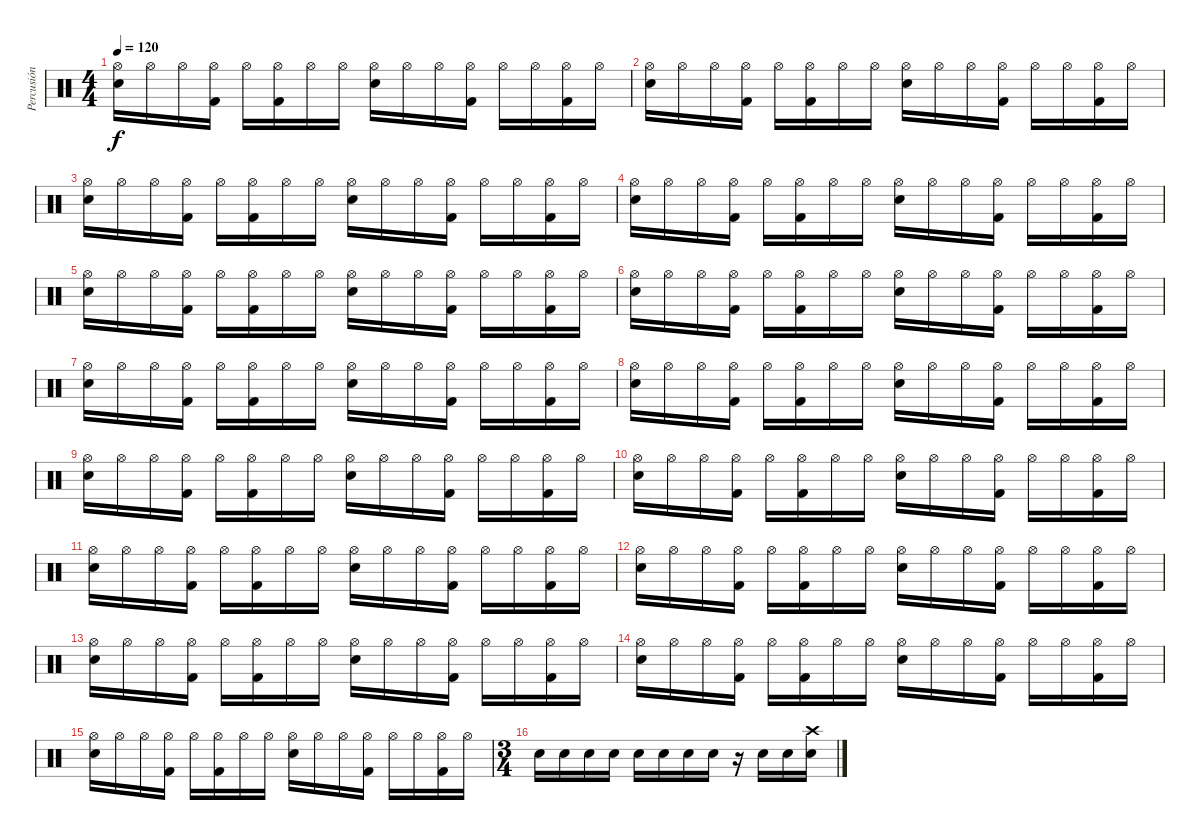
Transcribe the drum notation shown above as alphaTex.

\track ("Percusión" "Percusión") {instrument percussion}
\staff {score}
\articulation defaults
\ts (4 4)
\tempo 120
\clef neutral
\ks c
("Hi-Hat (open)" "Snare (hit) 2").16{dy f} "Hi-Hat (open)".16 "Hi-Hat (open)".16 ("Hi-Hat (open)" "Kick (hit) 2").16 "Hi-Hat (open)".16 ("Hi-Hat (open)" "Kick (hit) 2").16 "Hi-Hat (open)".16 "Hi-Hat (open)".16 ("Hi-Hat (open)" "Snare (hit) 2").16 "Hi-Hat (open)".16 "Hi-Hat (open)".16 ("Hi-Hat (open)" "Kick (hit) 2").16 "Hi-Hat (open)".16 "Hi-Hat (open)".16 ("Hi-Hat (open)" "Kick (hit) 2").16 "Hi-Hat (open)".16 |
("Hi-Hat (open)" "Snare (hit) 2").16 "Hi-Hat (open)".16 "Hi-Hat (open)".16 ("Hi-Hat (open)" "Kick (hit) 2").16 "Hi-Hat (open)".16 ("Hi-Hat (open)" "Kick (hit) 2").16 "Hi-Hat (open)".16 "Hi-Hat (open)".16 ("Hi-Hat (open)" "Snare (hit) 2").16 "Hi-Hat (open)".16 "Hi-Hat (open)".16 ("Hi-Hat (open)" "Kick (hit) 2").16 "Hi-Hat (open)".16 "Hi-Hat (open)".16 ("Hi-Hat (open)" "Kick (hit) 2").16 "Hi-Hat (open)".16 |
("Hi-Hat (open)" "Snare (hit) 2").16 "Hi-Hat (open)".16 "Hi-Hat (open)".16 ("Hi-Hat (open)" "Kick (hit) 2").16 "Hi-Hat (open)".16 ("Hi-Hat (open)" "Kick (hit) 2").16 "Hi-Hat (open)".16 "Hi-Hat (open)".16 ("Hi-Hat (open)" "Snare (hit) 2").16 "Hi-Hat (open)".16 "Hi-Hat (open)".16 ("Hi-Hat (open)" "Kick (hit) 2").16 "Hi-Hat (open)".16 "Hi-Hat (open)".16 ("Hi-Hat (open)" "Kick (hit) 2").16 "Hi-Hat (open)".16 |
("Hi-Hat (open)" "Snare (hit) 2").16 "Hi-Hat (open)".16 "Hi-Hat (open)".16 ("Hi-Hat (open)" "Kick (hit) 2").16 "Hi-Hat (open)".16 ("Hi-Hat (open)" "Kick (hit) 2").16 "Hi-Hat (open)".16 "Hi-Hat (open)".16 ("Hi-Hat (open)" "Snare (hit) 2").16 "Hi-Hat (open)".16 "Hi-Hat (open)".16 ("Hi-Hat (open)" "Kick (hit) 2").16 "Hi-Hat (open)".16 "Hi-Hat (open)".16 ("Hi-Hat (open)" "Kick (hit) 2").16 "Hi-Hat (open)".16 |
("Hi-Hat (open)" "Snare (hit) 2").16 "Hi-Hat (open)".16 "Hi-Hat (open)".16 ("Hi-Hat (open)" "Kick (hit) 2").16 "Hi-Hat (open)".16 ("Hi-Hat (open)" "Kick (hit) 2").16 "Hi-Hat (open)".16 "Hi-Hat (open)".16 ("Hi-Hat (open)" "Snare (hit) 2").16 "Hi-Hat (open)".16 "Hi-Hat (open)".16 ("Hi-Hat (open)" "Kick (hit) 2").16 "Hi-Hat (open)".16 "Hi-Hat (open)".16 ("Hi-Hat (open)" "Kick (hit) 2").16 "Hi-Hat (open)".16 |
("Hi-Hat (open)" "Snare (hit) 2").16 "Hi-Hat (open)".16 "Hi-Hat (open)".16 ("Hi-Hat (open)" "Kick (hit) 2").16 "Hi-Hat (open)".16 ("Hi-Hat (open)" "Kick (hit) 2").16 "Hi-Hat (open)".16 "Hi-Hat (open)".16 ("Hi-Hat (open)" "Snare (hit) 2").16 "Hi-Hat (open)".16 "Hi-Hat (open)".16 ("Hi-Hat (open)" "Kick (hit) 2").16 "Hi-Hat (open)".16 "Hi-Hat (open)".16 ("Hi-Hat (open)" "Kick (hit) 2").16 "Hi-Hat (open)".16 |
("Hi-Hat (open)" "Snare (hit) 2").16 "Hi-Hat (open)".16 "Hi-Hat (open)".16 ("Hi-Hat (open)" "Kick (hit) 2").16 "Hi-Hat (open)".16 ("Hi-Hat (open)" "Kick (hit) 2").16 "Hi-Hat (open)".16 "Hi-Hat (open)".16 ("Hi-Hat (open)" "Snare (hit) 2").16 "Hi-Hat (open)".16 "Hi-Hat (open)".16 ("Hi-Hat (open)" "Kick (hit) 2").16 "Hi-Hat (open)".16 "Hi-Hat (open)".16 ("Hi-Hat (open)" "Kick (hit) 2").16 "Hi-Hat (open)".16 |
("Hi-Hat (open)" "Snare (hit) 2").16 "Hi-Hat (open)".16 "Hi-Hat (open)".16 ("Hi-Hat (open)" "Kick (hit) 2").16 "Hi-Hat (open)".16 ("Hi-Hat (open)" "Kick (hit) 2").16 "Hi-Hat (open)".16 "Hi-Hat (open)".16 ("Hi-Hat (open)" "Snare (hit) 2").16 "Hi-Hat (open)".16 "Hi-Hat (open)".16 ("Hi-Hat (open)" "Kick (hit) 2").16 "Hi-Hat (open)".16 "Hi-Hat (open)".16 ("Hi-Hat (open)" "Kick (hit) 2").16 "Hi-Hat (open)".16 |
("Hi-Hat (open)" "Snare (hit) 2").16 "Hi-Hat (open)".16 "Hi-Hat (open)".16 ("Hi-Hat (open)" "Kick (hit) 2").16 "Hi-Hat (open)".16 ("Hi-Hat (open)" "Kick (hit) 2").16 "Hi-Hat (open)".16 "Hi-Hat (open)".16 ("Hi-Hat (open)" "Snare (hit) 2").16 "Hi-Hat (open)".16 "Hi-Hat (open)".16 ("Hi-Hat (open)" "Kick (hit) 2").16 "Hi-Hat (open)".16 "Hi-Hat (open)".16 ("Hi-Hat (open)" "Kick (hit) 2").16 "Hi-Hat (open)".16 |
("Hi-Hat (open)" "Snare (hit) 2").16 "Hi-Hat (open)".16 "Hi-Hat (open)".16 ("Hi-Hat (open)" "Kick (hit) 2").16 "Hi-Hat (open)".16 ("Hi-Hat (open)" "Kick (hit) 2").16 "Hi-Hat (open)".16 "Hi-Hat (open)".16 ("Hi-Hat (open)" "Snare (hit) 2").16 "Hi-Hat (open)".16 "Hi-Hat (open)".16 ("Hi-Hat (open)" "Kick (hit) 2").16 "Hi-Hat (open)".16 "Hi-Hat (open)".16 ("Hi-Hat (open)" "Kick (hit) 2").16 "Hi-Hat (open)".16 |
("Hi-Hat (open)" "Snare (hit) 2").16 "Hi-Hat (open)".16 "Hi-Hat (open)".16 ("Hi-Hat (open)" "Kick (hit) 2").16 "Hi-Hat (open)".16 ("Hi-Hat (open)" "Kick (hit) 2").16 "Hi-Hat (open)".16 "Hi-Hat (open)".16 ("Hi-Hat (open)" "Snare (hit) 2").16 "Hi-Hat (open)".16 "Hi-Hat (open)".16 ("Hi-Hat (open)" "Kick (hit) 2").16 "Hi-Hat (open)".16 "Hi-Hat (open)".16 ("Hi-Hat (open)" "Kick (hit) 2").16 "Hi-Hat (open)".16 |
("Hi-Hat (open)" "Snare (hit) 2").16 "Hi-Hat (open)".16 "Hi-Hat (open)".16 ("Hi-Hat (open)" "Kick (hit) 2").16 "Hi-Hat (open)".16 ("Hi-Hat (open)" "Kick (hit) 2").16 "Hi-Hat (open)".16 "Hi-Hat (open)".16 ("Hi-Hat (open)" "Snare (hit) 2").16 "Hi-Hat (open)".16 "Hi-Hat (open)".16 ("Hi-Hat (open)" "Kick (hit) 2").16 "Hi-Hat (open)".16 "Hi-Hat (open)".16 ("Hi-Hat (open)" "Kick (hit) 2").16 "Hi-Hat (open)".16 |
("Hi-Hat (open)" "Snare (hit) 2").16 "Hi-Hat (open)".16 "Hi-Hat (open)".16 ("Hi-Hat (open)" "Kick (hit) 2").16 "Hi-Hat (open)".16 ("Hi-Hat (open)" "Kick (hit) 2").16 "Hi-Hat (open)".16 "Hi-Hat (open)".16 ("Hi-Hat (open)" "Snare (hit) 2").16 "Hi-Hat (open)".16 "Hi-Hat (open)".16 ("Hi-Hat (open)" "Kick (hit) 2").16 "Hi-Hat (open)".16 "Hi-Hat (open)".16 ("Hi-Hat (open)" "Kick (hit) 2").16 "Hi-Hat (open)".16 |
("Hi-Hat (open)" "Snare (hit) 2").16 "Hi-Hat (open)".16 "Hi-Hat (open)".16 ("Hi-Hat (open)" "Kick (hit) 2").16 "Hi-Hat (open)".16 ("Hi-Hat (open)" "Kick (hit) 2").16 "Hi-Hat (open)".16 "Hi-Hat (open)".16 ("Hi-Hat (open)" "Snare (hit) 2").16 "Hi-Hat (open)".16 "Hi-Hat (open)".16 ("Hi-Hat (open)" "Kick (hit) 2").16 "Hi-Hat (open)".16 "Hi-Hat (open)".16 ("Hi-Hat (open)" "Kick (hit) 2").16 "Hi-Hat (open)".16 |
("Hi-Hat (open)" "Snare (hit) 2").16 "Hi-Hat (open)".16 "Hi-Hat (open)".16 ("Hi-Hat (open)" "Kick (hit) 2").16 "Hi-Hat (open)".16 ("Hi-Hat (open)" "Kick (hit) 2").16 "Hi-Hat (open)".16 "Hi-Hat (open)".16 ("Hi-Hat (open)" "Snare (hit) 2").16 "Hi-Hat (open)".16 "Hi-Hat (open)".16 ("Hi-Hat (open)" "Kick (hit) 2").16 "Hi-Hat (open)".16 "Hi-Hat (open)".16 ("Hi-Hat (open)" "Kick (hit) 2").16 "Hi-Hat (open)".16 |
\ts (3 4)
"Snare (hit) 2".16 "Snare (hit) 2".16 "Snare (hit) 2".16 "Snare (hit) 2".16 "Snare (hit) 2".16 "Snare (hit) 2".16 "Snare (hit) 2".16 "Snare (hit) 2".16 r.16 "Snare (hit) 2".16 "Snare (hit) 2".16 ("Snare (hit) 2" "Crash high (hit)").16
